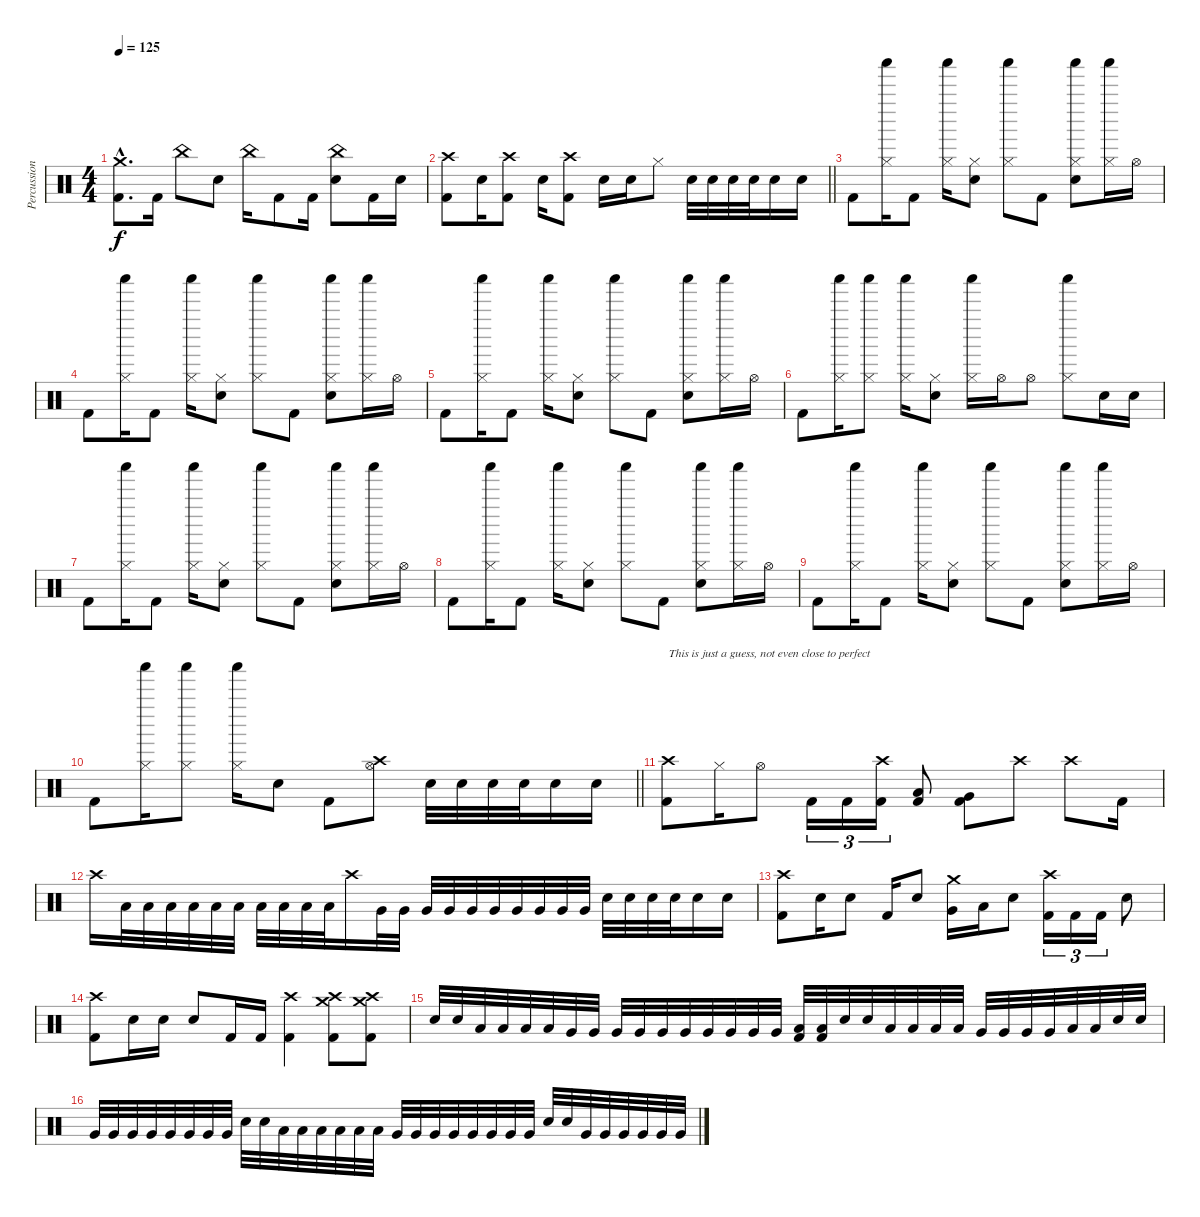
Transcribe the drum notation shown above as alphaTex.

\track ("Percussion" "Percussion") {instrument percussion}
\staff {score}
\articulation defaults
\ts (4 4)
\tempo 125
\clef neutral
\ks c
("Crash medium (hit)"{hac} "Kick (hit) 2"{hac}).8{d dy f} "Kick (hit) 2".16 "China (hit)".8 "Electric Snare (hit)".8 "China (hit)".16 "Kick (hit) 2".8 "Kick (hit) 2".16 ("China (hit)" "Electric Snare (hit)").8 "Kick (hit) 2".16 "Electric Snare (hit)".16 |
\barLineRight lightlight
("Crash high (hit)" "Kick (hit) 2").8 "Electric Snare (hit)".16 ("Crash high (hit)" "Kick (hit) 2").8 "Electric Snare (hit)".16 ("Crash high (hit)" "Kick (hit) 2").8 "Electric Snare (hit)".16 "Electric Snare (hit)".16 "Hi-Hat (closed)".8 "Electric Snare (hit)".32 "Electric Snare (hit)".32 "Electric Snare (hit)".32 "Electric Snare (hit)".32 "Electric Snare (hit)".16 "Electric Snare (hit)".16 |
"Kick (hit) 2".8 ("Shaker (hit)" "Hi-Hat (closed)").16 "Kick (hit) 2".8 ("Shaker (hit)" "Hi-Hat (closed)").16 ("Hi-Hat (closed)" "Electric Snare (hit)").8 ("Shaker (hit)" "Hi-Hat (closed)").8 "Kick (hit) 2".8 ("Shaker (hit)" "Hi-Hat (closed)" "Electric Snare (hit)").8 ("Shaker (hit)" "Hi-Hat (closed)").16 "Hi-Hat (open)".16 |
"Kick (hit) 2".8 ("Shaker (hit)" "Hi-Hat (closed)").16 "Kick (hit) 2".8 ("Shaker (hit)" "Hi-Hat (closed)").16 ("Hi-Hat (closed)" "Electric Snare (hit)").8 ("Shaker (hit)" "Hi-Hat (closed)").8 "Kick (hit) 2".8 ("Shaker (hit)" "Hi-Hat (closed)" "Electric Snare (hit)").8 ("Shaker (hit)" "Hi-Hat (closed)").16 "Hi-Hat (open)".16 |
"Kick (hit) 2".8 ("Shaker (hit)" "Hi-Hat (closed)").16 "Kick (hit) 2".8 ("Shaker (hit)" "Hi-Hat (closed)").16 ("Hi-Hat (closed)" "Electric Snare (hit)").8 ("Shaker (hit)" "Hi-Hat (closed)").8 "Kick (hit) 2".8 ("Shaker (hit)" "Hi-Hat (closed)" "Electric Snare (hit)").8 ("Shaker (hit)" "Hi-Hat (closed)").16 "Hi-Hat (open)".16 |
"Kick (hit) 2".8 ("Shaker (hit)" "Hi-Hat (closed)").16 ("Shaker (hit)" "Hi-Hat (closed)").8 ("Shaker (hit)" "Hi-Hat (closed)").16 ("Hi-Hat (closed)" "Electric Snare (hit)").8 ("Shaker (hit)" "Hi-Hat (closed)").16 "Hi-Hat (open)".16 "Hi-Hat (open)".8 ("Shaker (hit)" "Hi-Hat (closed)").8 "Electric Snare (hit)".16 "Electric Snare (hit)".16 |
"Kick (hit) 2".8 ("Shaker (hit)" "Hi-Hat (closed)").16 "Kick (hit) 2".8 ("Shaker (hit)" "Hi-Hat (closed)").16 ("Hi-Hat (closed)" "Electric Snare (hit)").8 ("Shaker (hit)" "Hi-Hat (closed)").8 "Kick (hit) 2".8 ("Shaker (hit)" "Hi-Hat (closed)" "Electric Snare (hit)").8 ("Shaker (hit)" "Hi-Hat (closed)").16 "Hi-Hat (open)".16 |
"Kick (hit) 2".8 ("Shaker (hit)" "Hi-Hat (closed)").16 "Kick (hit) 2".8 ("Shaker (hit)" "Hi-Hat (closed)").16 ("Hi-Hat (closed)" "Electric Snare (hit)").8 ("Shaker (hit)" "Hi-Hat (closed)").8 "Kick (hit) 2".8 ("Shaker (hit)" "Hi-Hat (closed)" "Electric Snare (hit)").8 ("Shaker (hit)" "Hi-Hat (closed)").16 "Hi-Hat (open)".16 |
"Kick (hit) 2".8 ("Shaker (hit)" "Hi-Hat (closed)").16 "Kick (hit) 2".8 ("Shaker (hit)" "Hi-Hat (closed)").16 ("Hi-Hat (closed)" "Electric Snare (hit)").8 ("Shaker (hit)" "Hi-Hat (closed)").8 "Kick (hit) 2".8 ("Shaker (hit)" "Hi-Hat (closed)" "Electric Snare (hit)").8 ("Shaker (hit)" "Hi-Hat (closed)").16 "Hi-Hat (open)".16 |
\barLineRight lightlight "Kick (hit) 2".8
("Shaker (hit)" "Hi-Hat (closed)").16 ("Shaker (hit)" "Hi-Hat (closed)").8 ("Shaker (hit)" "Hi-Hat (closed)").16 "Electric Snare (hit)".8 "Kick (hit) 2".8 ("Crash high (hit)" "Hi-Hat (open)").8 "Electric Snare (hit)".32 "Electric Snare (hit)".32 "Electric Snare (hit)".32 "Electric Snare (hit)".32 "Electric Snare (hit)".16 "Electric Snare (hit)".16 |
("Crash high (hit)" "Kick (hit) 2").8{txt "This is just a guess, not even close to perfect"} "Hi-Hat (closed)".16 "Hi-Hat (open)".8 "Kick (hit) 2".16{tu (3 2)} "Kick (hit) 2".16{tu (3 2)} ("Crash high (hit)" "Kick (hit) 2").16{tu (3 2)} ("Low Tom (hit)" "Kick (hit) 2").8 ("Very Low Tom (hit)" "Kick (hit) 2").8 "Crash high (hit)".8 "Crash high (hit)".8 "Kick (hit) 2".16 |
"Crash high (hit)".16 "Low Tom (hit)".32 "Low Tom (hit)".32 "Low Tom (hit)".32 "Low Tom (hit)".32 "Low Tom (hit)".32 "Low Tom (hit)".32 "Low Tom (hit)".32 "Low Tom (hit)".32 "Low Tom (hit)".32 "Low Tom (hit)".32 "Crash high (hit)".16 "Very Low Tom (hit)".32 "Very Low Tom (hit)".32 "Very Low Tom (hit)".32 "Very Low Tom (hit)".32 "Very Low Tom (hit)".32 "Very Low Tom (hit)".32 "Very Low Tom (hit)".32 "Very Low Tom (hit)".32 "Very Low Tom (hit)".32 "Very Low Tom (hit)".32 "Electric Snare (hit)".32 "Electric Snare (hit)".32 "Electric Snare (hit)".32 "Electric Snare (hit)".32 "Electric Snare (hit)".16 "Electric Snare (hit)".16 |
("Crash high (hit)" "Kick (hit) 2").8 "Electric Snare (hit)".16 "Electric Snare (hit)".8 "Kick (hit) 2".16 "Electric Snare (hit)".8 ("Crash medium (hit)" "Very Low Tom (hit)").16 "Low Floor Tom (hit)".16 "Electric Snare (hit)".8 ("Crash high (hit)" "Kick (hit) 2").16{tu (3 2)} "Kick (hit) 2".16{tu (3 2)} "Kick (hit) 2".16{tu (3 2)} "Electric Snare (hit)".8 |
("Crash high (hit)" "Kick (hit) 2").8 "Electric Snare (hit)".16 "Electric Snare (hit)".16 "Electric Snare (hit)".8 "Kick (hit) 2".16 "Kick (hit) 2".16 ("Crash high (hit)" "Kick (hit) 2").4 ("Crash high (hit)" "Crash medium (hit)" "Kick (hit) 2").8 ("Crash high (hit)" "Crash medium (hit)" "Kick (hit) 2").8 |
"Electric Snare (hit)".32 "Electric Snare (hit)".32 "Low Tom (hit)".32 "Low Tom (hit)".32 "Low Tom (hit)".32 "Low Tom (hit)".32 "Very Low Tom (hit)".32 "Very Low Tom (hit)".32 "Very Low Tom (hit)".32 "Very Low Tom (hit)".32 "Very Low Tom (hit)".32 "Very Low Tom (hit)".32 "Very Low Tom (hit)".32 "Very Low Tom (hit)".32 "Very Low Tom (hit)".32 "Very Low Tom (hit)".32 ("Low Floor Tom (hit)" "Kick (hit) 2").32 ("Low Floor Tom (hit)" "Kick (hit) 2").32 "Electric Snare (hit)".32 "Electric Snare (hit)".32 "Low Floor Tom (hit)".32 "Low Floor Tom (hit)".32 "Low Floor Tom (hit)".32 "Low Floor Tom (hit)".32 "Very Low Tom (hit)".32 "Very Low Tom (hit)".32 "Very Low Tom (hit)".32 "Very Low Tom (hit)".32 "Low Tom (hit)".32 "Low Tom (hit)".32 "Electric Snare (hit)".32 "Electric Snare (hit)".32 |
"Very Low Tom (hit)".32 "Very Low Tom (hit)".32 "Very Low Tom (hit)".32 "Very Low Tom (hit)".32 "Very Low Tom (hit)".32 "Very Low Tom (hit)".32 "Very Low Tom (hit)".32 "Very Low Tom (hit)".32 "Electric Snare (hit)".32 "Electric Snare (hit)".32 "Low Tom (hit)".32 "Low Tom (hit)".32 "Low Tom (hit)".32 "Low Tom (hit)".32 "Low Tom (hit)".32 "Low Tom (hit)".32 "Very Low Tom (hit)".32 "Very Low Tom (hit)".32 "Very Low Tom (hit)".32 "Very Low Tom (hit)".32 "Very Low Tom (hit)".32 "Very Low Tom (hit)".32 "Very Low Tom (hit)".32 "Very Low Tom (hit)".32 "Electric Snare (hit)".32 "Electric Snare (hit)".32 "Very Low Tom (hit)".32 "Very Low Tom (hit)".32 "Very Low Tom (hit)".32 "Very Low Tom (hit)".32 "Very Low Tom (hit)".32 "Very Low Tom (hit)".32
